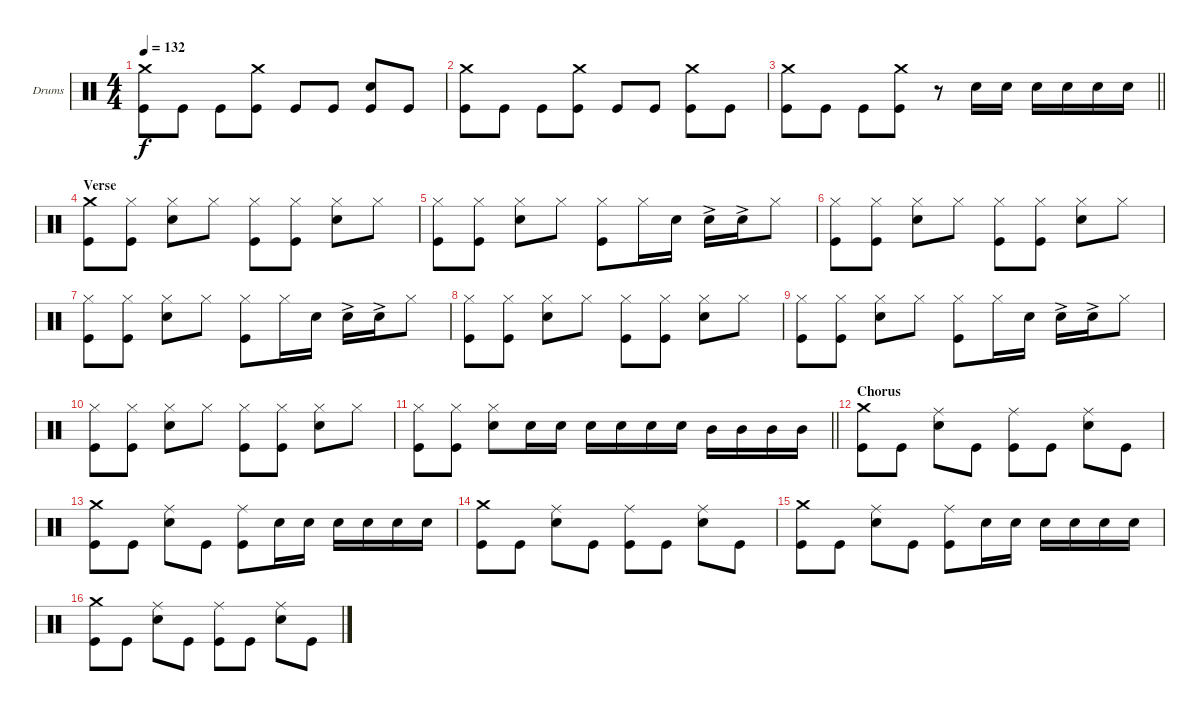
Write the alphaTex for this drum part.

\bracketExtendMode groupsimilarinstruments
\firstSystemTrackNameOrientation horizontal
\otherSystemsTrackNameOrientation horizontal
\track ("Drums" "Drums") {instrument percussion}
\staff {score}
\articulation defaults
\ts (4 4)
\tempo 132
\clef neutral
\ks c
("Crash medium (hit)" "Kick (hit)").8{dy f} "Kick (hit)".8 "Kick (hit)".8 ("Crash medium (hit)" "Kick (hit)").8 "Kick (hit)".8 "Kick (hit)".8 ("Snare (hit) 2" "Kick (hit)").8 "Kick (hit)".8 |
("Crash medium (hit)" "Kick (hit)").8 "Kick (hit)".8 "Kick (hit)".8 ("Crash medium (hit)" "Kick (hit)").8 "Kick (hit)".8 "Kick (hit)".8 ("Crash medium (hit)" "Kick (hit)").8 "Kick (hit)".8 |
\barLineRight lightlight
("Crash medium (hit)" "Kick (hit)").8 "Kick (hit)".8 "Kick (hit)".8 ("Crash medium (hit)" "Kick (hit)").8 r.8 "Snare (hit) 2".16 "Snare (hit) 2".16 "Snare (hit) 2".16 "Snare (hit) 2".16 "Snare (hit) 2".16 "Snare (hit) 2".16 |
\section ("" "Verse")
("Crash medium (hit)" "Kick (hit)").8 ("Hi-Hat (closed)" "Kick (hit)").8 ("Hi-Hat (closed)" "Snare (hit) 2").8 "Hi-Hat (closed)".8 ("Hi-Hat (closed)" "Kick (hit)").8 ("Hi-Hat (closed)" "Kick (hit)").8 ("Hi-Hat (closed)" "Snare (hit) 2").8 "Hi-Hat (closed)".8 |
("Hi-Hat (closed)" "Kick (hit)").8 ("Hi-Hat (closed)" "Kick (hit)").8 ("Hi-Hat (closed)" "Snare (hit) 2").8 "Hi-Hat (closed)".8 ("Hi-Hat (closed)" "Kick (hit)").8 "Hi-Hat (closed)".16 "Snare (hit) 2".16 "Snare (hit) 2"{ac}.16 "Snare (hit) 2"{ac}.16 "Hi-Hat (closed)".8 |
("Hi-Hat (closed)" "Kick (hit)").8 ("Hi-Hat (closed)" "Kick (hit)").8 ("Hi-Hat (closed)" "Snare (hit) 2").8 "Hi-Hat (closed)".8 ("Hi-Hat (closed)" "Kick (hit)").8 ("Hi-Hat (closed)" "Kick (hit)").8 ("Hi-Hat (closed)" "Snare (hit) 2").8 "Hi-Hat (closed)".8 |
("Hi-Hat (closed)" "Kick (hit)").8 ("Hi-Hat (closed)" "Kick (hit)").8 ("Hi-Hat (closed)" "Snare (hit) 2").8 "Hi-Hat (closed)".8 ("Hi-Hat (closed)" "Kick (hit)").8 "Hi-Hat (closed)".16 "Snare (hit) 2".16 "Snare (hit) 2"{ac}.16 "Snare (hit) 2"{ac}.16 "Hi-Hat (closed)".8 |
("Hi-Hat (closed)" "Kick (hit)").8 ("Hi-Hat (closed)" "Kick (hit)").8 ("Hi-Hat (closed)" "Snare (hit) 2").8 "Hi-Hat (closed)".8 ("Hi-Hat (closed)" "Kick (hit)").8 ("Hi-Hat (closed)" "Kick (hit)").8 ("Hi-Hat (closed)" "Snare (hit) 2").8 "Hi-Hat (closed)".8 |
("Hi-Hat (closed)" "Kick (hit)").8 ("Hi-Hat (closed)" "Kick (hit)").8 ("Hi-Hat (closed)" "Snare (hit) 2").8 "Hi-Hat (closed)".8 ("Hi-Hat (closed)" "Kick (hit)").8 "Hi-Hat (closed)".16 "Snare (hit) 2".16 "Snare (hit) 2"{ac}.16 "Snare (hit) 2"{ac}.16 "Hi-Hat (closed)".8 |
("Hi-Hat (closed)" "Kick (hit)").8 ("Hi-Hat (closed)" "Kick (hit)").8 ("Hi-Hat (closed)" "Snare (hit) 2").8 "Hi-Hat (closed)".8 ("Hi-Hat (closed)" "Kick (hit)").8 ("Hi-Hat (closed)" "Kick (hit)").8 ("Hi-Hat (closed)" "Snare (hit) 2").8 "Hi-Hat (closed)".8 |
\barLineRight lightlight
("Hi-Hat (closed)" "Kick (hit)").8 ("Hi-Hat (closed)" "Kick (hit)").8 ("Hi-Hat (closed)" "Snare (hit) 2").8 "Snare (hit) 2".16 "Snare (hit) 2".16 "Snare (hit) 2".16 "Snare (hit) 2".16 "Snare (hit) 2".16 "Snare (hit) 2".16 "Mid Tom (hit)".16 "Mid Tom (hit)".16 "Mid Tom (hit)".16 "Mid Tom (hit)".16 |
\section ("" "Chorus")
("Crash medium (hit)" "Kick (hit)").8 "Kick (hit)".8 ("Ride (middle)" "Snare (hit) 2").8 "Kick (hit)".8 ("Ride (middle)" "Kick (hit)").8 "Kick (hit)".8 ("Ride (middle)" "Snare (hit) 2").8 "Kick (hit)".8 |
("Crash medium (hit)" "Kick (hit)").8 "Kick (hit)".8 ("Ride (middle)" "Snare (hit) 2").8 "Kick (hit)".8 ("Ride (middle)" "Kick (hit)").8 "Snare (hit) 2".16 "Snare (hit) 2".16 "Snare (hit) 2".16 "Snare (hit) 2".16 "Snare (hit) 2".16 "Snare (hit) 2".16 |
("Crash medium (hit)" "Kick (hit)").8 "Kick (hit)".8 ("Ride (middle)" "Snare (hit) 2").8 "Kick (hit)".8 ("Ride (middle)" "Kick (hit)").8 "Kick (hit)".8 ("Ride (middle)" "Snare (hit) 2").8 "Kick (hit)".8 |
("Crash medium (hit)" "Kick (hit)").8 "Kick (hit)".8 ("Ride (middle)" "Snare (hit) 2").8 "Kick (hit)".8 ("Ride (middle)" "Kick (hit)").8 "Snare (hit) 2".16 "Snare (hit) 2".16 "Snare (hit) 2".16 "Snare (hit) 2".16 "Snare (hit) 2".16 "Snare (hit) 2".16 |
("Crash medium (hit)" "Kick (hit)").8 "Kick (hit)".8 ("Ride (middle)" "Snare (hit) 2").8 "Kick (hit)".8 ("Ride (middle)" "Kick (hit)").8 "Kick (hit)".8 ("Ride (middle)" "Snare (hit) 2").8 "Kick (hit)".8
